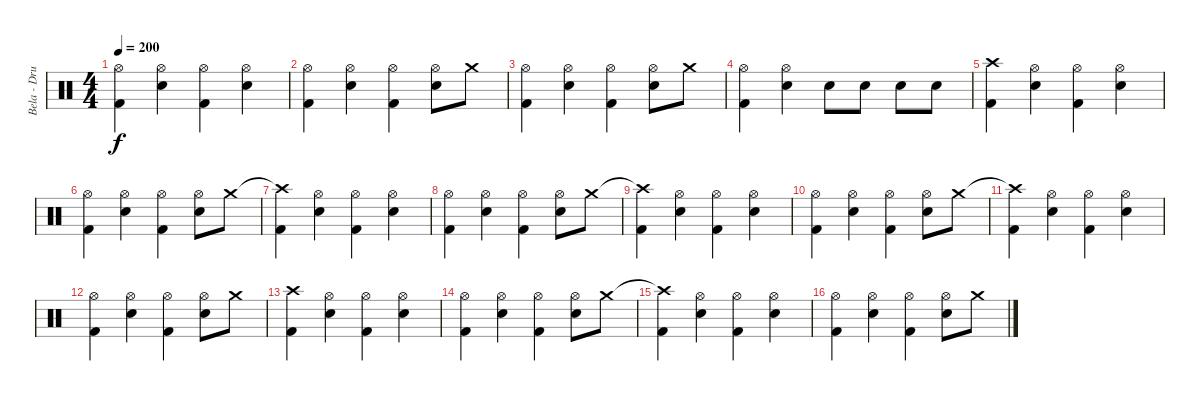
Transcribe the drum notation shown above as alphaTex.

\track ("Bela - Drums" "Bela - Dru") {instrument percussion}
\staff {score}
\articulation defaults
\ts (4 4)
\tempo 200
\clef neutral
\ks c
("Hi-Hat (open)" "Kick (hit) 2").4{dy f} ("Hi-Hat (open)" "Snare (hit) 2").4 ("Hi-Hat (open)" "Kick (hit) 2").4 ("Hi-Hat (open)" "Snare (hit) 2").4 |
("Hi-Hat (open)" "Kick (hit) 2").4 ("Hi-Hat (open)" "Snare (hit) 2").4 ("Hi-Hat (open)" "Kick (hit) 2").4 ("Hi-Hat (open)" "Snare (hit) 2").8 "Crash medium (hit)".8 |
("Hi-Hat (open)" "Kick (hit) 2").4 ("Hi-Hat (open)" "Snare (hit) 2").4 ("Hi-Hat (open)" "Kick (hit) 2").4 ("Hi-Hat (open)" "Snare (hit) 2").8 "Crash medium (hit)".8 |
("Hi-Hat (open)" "Kick (hit) 2").4 ("Hi-Hat (open)" "Snare (hit) 2").4 "Snare (hit) 2".8 "Snare (hit) 2".8 "Snare (hit) 2".8 "Snare (hit) 2".8 |
("Crash high (hit)" "Kick (hit) 2").4 ("Hi-Hat (open)" "Snare (hit) 2").4 ("Hi-Hat (open)" "Kick (hit) 2").4 ("Hi-Hat (open)" "Snare (hit) 2").4 |
("Hi-Hat (open)" "Kick (hit) 2").4 ("Hi-Hat (open)" "Snare (hit) 2").4 ("Hi-Hat (open)" "Kick (hit) 2").4 ("Hi-Hat (open)" "Snare (hit) 2").8 "Crash medium (hit)".8 |
("Crash high (hit)"{t} "Kick (hit) 2").4 ("Hi-Hat (open)" "Snare (hit) 2").4 ("Hi-Hat (open)" "Kick (hit) 2").4 ("Hi-Hat (open)" "Snare (hit) 2").4 |
("Hi-Hat (open)" "Kick (hit) 2").4 ("Hi-Hat (open)" "Snare (hit) 2").4 ("Hi-Hat (open)" "Kick (hit) 2").4 ("Hi-Hat (open)" "Snare (hit) 2").8 "Crash medium (hit)".8 |
("Crash high (hit)"{t} "Kick (hit) 2").4 ("Hi-Hat (open)" "Snare (hit) 2").4 ("Hi-Hat (open)" "Kick (hit) 2").4 ("Hi-Hat (open)" "Snare (hit) 2").4 |
("Hi-Hat (open)" "Kick (hit) 2").4 ("Hi-Hat (open)" "Snare (hit) 2").4 ("Hi-Hat (open)" "Kick (hit) 2").4 ("Hi-Hat (open)" "Snare (hit) 2").8 "Crash medium (hit)".8 |
("Crash high (hit)"{t} "Kick (hit) 2").4 ("Hi-Hat (open)" "Snare (hit) 2").4 ("Hi-Hat (open)" "Kick (hit) 2").4 ("Hi-Hat (open)" "Snare (hit) 2").4 |
("Hi-Hat (open)" "Kick (hit) 2").4 ("Hi-Hat (open)" "Snare (hit) 2").4 ("Hi-Hat (open)" "Kick (hit) 2").4 ("Hi-Hat (open)" "Snare (hit) 2").8 "Crash medium (hit)".8 |
("Crash high (hit)" "Kick (hit) 2").4 ("Hi-Hat (open)" "Snare (hit) 2").4 ("Hi-Hat (open)" "Kick (hit) 2").4 ("Hi-Hat (open)" "Snare (hit) 2").4 |
("Hi-Hat (open)" "Kick (hit) 2").4 ("Hi-Hat (open)" "Snare (hit) 2").4 ("Hi-Hat (open)" "Kick (hit) 2").4 ("Hi-Hat (open)" "Snare (hit) 2").8 "Crash medium (hit)".8 |
("Crash high (hit)"{t} "Kick (hit) 2").4 ("Hi-Hat (open)" "Snare (hit) 2").4 ("Hi-Hat (open)" "Kick (hit) 2").4 ("Hi-Hat (open)" "Snare (hit) 2").4 |
("Hi-Hat (open)" "Kick (hit) 2").4 ("Hi-Hat (open)" "Snare (hit) 2").4 ("Hi-Hat (open)" "Kick (hit) 2").4 ("Hi-Hat (open)" "Snare (hit) 2").8 "Crash medium (hit)".8
